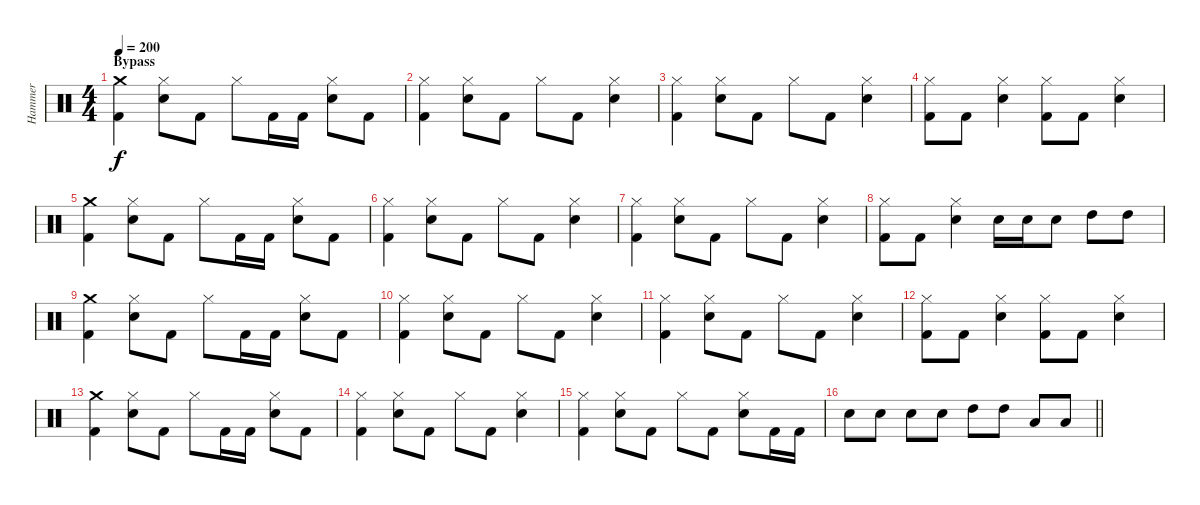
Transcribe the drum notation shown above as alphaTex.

\track ("Hammer" "Hammer") {instrument percussion}
\staff {score}
\articulation defaults
\ts (4 4)
\section ("" "Bypass")
\tempo 200
\clef neutral
\ks c
("Kick (hit) 2" "Crash medium (hit)").4{dy f} ("Snare (hit) 2" "Hi-Hat (closed)").8 "Kick (hit) 2".8 "Hi-Hat (closed)".8 "Kick (hit) 2".16 "Kick (hit) 2".16 ("Snare (hit) 2" "Hi-Hat (closed)").8 "Kick (hit) 2".8 |
("Kick (hit) 2" "Hi-Hat (closed)").4 ("Snare (hit) 2" "Hi-Hat (closed)").8 "Kick (hit) 2".8 "Hi-Hat (closed)".8 "Kick (hit) 2".8 ("Snare (hit) 2" "Hi-Hat (closed)").4 |
("Kick (hit) 2" "Hi-Hat (closed)").4 ("Snare (hit) 2" "Hi-Hat (closed)").8 "Kick (hit) 2".8 "Hi-Hat (closed)".8 "Kick (hit) 2".8 ("Snare (hit) 2" "Hi-Hat (closed)").4 |
("Kick (hit) 2" "Hi-Hat (closed)").8 "Kick (hit) 2".8 ("Snare (hit) 2" "Hi-Hat (closed)").4 ("Kick (hit) 2" "Hi-Hat (closed)").8 "Kick (hit) 2".8 ("Snare (hit) 2" "Hi-Hat (closed)").4 |
("Kick (hit) 2" "Crash medium (hit)").4 ("Snare (hit) 2" "Hi-Hat (closed)").8 "Kick (hit) 2".8 "Hi-Hat (closed)".8 "Kick (hit) 2".16 "Kick (hit) 2".16 ("Snare (hit) 2" "Hi-Hat (closed)").8 "Kick (hit) 2".8 |
("Kick (hit) 2" "Hi-Hat (closed)").4 ("Snare (hit) 2" "Hi-Hat (closed)").8 "Kick (hit) 2".8 "Hi-Hat (closed)".8 "Kick (hit) 2".8 ("Snare (hit) 2" "Hi-Hat (closed)").4 |
("Kick (hit) 2" "Hi-Hat (closed)").4 ("Snare (hit) 2" "Hi-Hat (closed)").8 "Kick (hit) 2".8 "Hi-Hat (closed)".8 "Kick (hit) 2".8 ("Snare (hit) 2" "Hi-Hat (closed)").4 |
("Kick (hit) 2" "Hi-Hat (closed)").8 "Kick (hit) 2".8 ("Snare (hit) 2" "Hi-Hat (closed)").4 "Snare (hit) 2".16 "Snare (hit) 2".16 "Snare (hit) 2".8 "High Tom (hit)".8 "High Tom (hit)".8 |
("Kick (hit) 2" "Crash medium (hit)").4 ("Snare (hit) 2" "Hi-Hat (closed)").8 "Kick (hit) 2".8 "Hi-Hat (closed)".8 "Kick (hit) 2".16 "Kick (hit) 2".16 ("Snare (hit) 2" "Hi-Hat (closed)").8 "Kick (hit) 2".8 |
("Kick (hit) 2" "Hi-Hat (closed)").4 ("Snare (hit) 2" "Hi-Hat (closed)").8 "Kick (hit) 2".8 "Hi-Hat (closed)".8 "Kick (hit) 2".8 ("Snare (hit) 2" "Hi-Hat (closed)").4 |
("Kick (hit) 2" "Hi-Hat (closed)").4 ("Snare (hit) 2" "Hi-Hat (closed)").8 "Kick (hit) 2".8 "Hi-Hat (closed)".8 "Kick (hit) 2".8 ("Snare (hit) 2" "Hi-Hat (closed)").4 |
("Kick (hit) 2" "Hi-Hat (closed)").8 "Kick (hit) 2".8 ("Snare (hit) 2" "Hi-Hat (closed)").4 ("Kick (hit) 2" "Hi-Hat (closed)").8 "Kick (hit) 2".8 ("Snare (hit) 2" "Hi-Hat (closed)").4 |
("Kick (hit) 2" "Crash medium (hit)").4 ("Snare (hit) 2" "Hi-Hat (closed)").8 "Kick (hit) 2".8 "Hi-Hat (closed)".8 "Kick (hit) 2".16 "Kick (hit) 2".16 ("Snare (hit) 2" "Hi-Hat (closed)").8 "Kick (hit) 2".8 |
("Kick (hit) 2" "Hi-Hat (closed)").4 ("Snare (hit) 2" "Hi-Hat (closed)").8 "Kick (hit) 2".8 "Hi-Hat (closed)".8 "Kick (hit) 2".8 ("Snare (hit) 2" "Hi-Hat (closed)").4 |
("Kick (hit) 2" "Hi-Hat (closed)").4 ("Snare (hit) 2" "Hi-Hat (closed)").8 "Kick (hit) 2".8 "Hi-Hat (closed)".8 "Kick (hit) 2".8 ("Snare (hit) 2" "Hi-Hat (closed)").8 "Kick (hit) 2".16 "Kick (hit) 2".16 |
\barLineRight lightlight "Snare (hit) 2".8 "Snare (hit) 2".8 "Snare (hit) 2".8 "Snare (hit) 2".8 "High Tom (hit)".8 "High Tom (hit)".8 "Low Tom (hit)".8 "Low Tom (hit)".8
